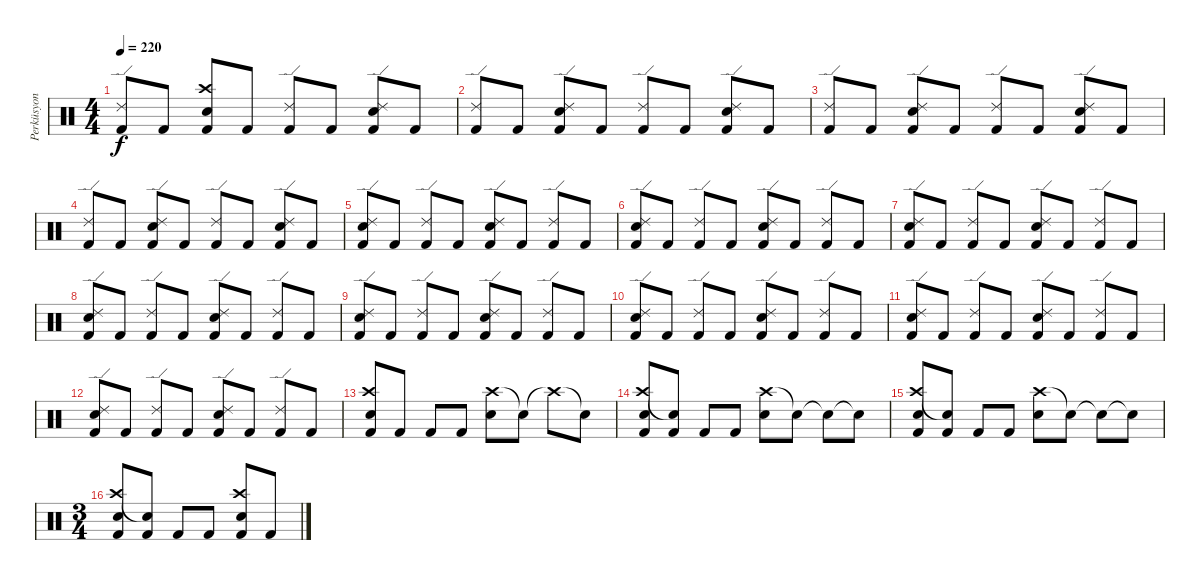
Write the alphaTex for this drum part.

\track ("Perküsyon" "Perküsyon") {instrument percussion}
\staff {score}
\articulation defaults
\ts (4 4)
\tempo 220
\clef neutral
\ks c
("Ride (edge) 2" "Kick (hit) 2").8{dy f} "Kick (hit) 2".8 ("Crash high (hit)" "Electric Snare (hit)" "Kick (hit) 2").8 "Kick (hit) 2".8 ("Ride (edge) 2" "Kick (hit) 2").8 "Kick (hit) 2".8 ("Ride (edge) 2" "Electric Snare (hit)" "Kick (hit) 2").8 "Kick (hit) 2".8 |
("Ride (edge) 2" "Kick (hit) 2").8 "Kick (hit) 2".8 ("Ride (edge) 2" "Electric Snare (hit)" "Kick (hit) 2").8 "Kick (hit) 2".8 ("Ride (edge) 2" "Kick (hit) 2").8 "Kick (hit) 2".8 ("Ride (edge) 2" "Electric Snare (hit)" "Kick (hit) 2").8 "Kick (hit) 2".8 |
("Ride (edge) 2" "Kick (hit) 2").8 "Kick (hit) 2".8 ("Ride (edge) 2" "Electric Snare (hit)" "Kick (hit) 2").8 "Kick (hit) 2".8 ("Ride (edge) 2" "Kick (hit) 2").8 "Kick (hit) 2".8 ("Ride (edge) 2" "Electric Snare (hit)" "Kick (hit) 2").8 "Kick (hit) 2".8 |
("Ride (edge) 2" "Kick (hit) 2").8 "Kick (hit) 2".8 ("Ride (edge) 2" "Electric Snare (hit)" "Kick (hit) 2").8 "Kick (hit) 2".8 ("Ride (edge) 2" "Kick (hit) 2").8 "Kick (hit) 2".8 ("Ride (edge) 2" "Electric Snare (hit)" "Kick (hit) 2").8 "Kick (hit) 2".8 |
("Ride (edge) 2" "Electric Snare (hit)" "Kick (hit) 2").8 "Kick (hit) 2".8 ("Ride (edge) 2" "Kick (hit) 2").8 "Kick (hit) 2".8 ("Ride (edge) 2" "Electric Snare (hit)" "Kick (hit) 2").8 "Kick (hit) 2".8 ("Ride (edge) 2" "Kick (hit) 2").8 "Kick (hit) 2".8 |
("Ride (edge) 2" "Electric Snare (hit)" "Kick (hit) 2").8 "Kick (hit) 2".8 ("Ride (edge) 2" "Kick (hit) 2").8 "Kick (hit) 2".8 ("Ride (edge) 2" "Electric Snare (hit)" "Kick (hit) 2").8 "Kick (hit) 2".8 ("Ride (edge) 2" "Kick (hit) 2").8 "Kick (hit) 2".8 |
("Ride (edge) 2" "Electric Snare (hit)" "Kick (hit) 2").8 "Kick (hit) 2".8 ("Ride (edge) 2" "Kick (hit) 2").8 "Kick (hit) 2".8 ("Ride (edge) 2" "Electric Snare (hit)" "Kick (hit) 2").8 "Kick (hit) 2".8 ("Ride (edge) 2" "Kick (hit) 2").8 "Kick (hit) 2".8 |
("Ride (edge) 2" "Electric Snare (hit)" "Kick (hit) 2").8 "Kick (hit) 2".8 ("Ride (edge) 2" "Kick (hit) 2").8 "Kick (hit) 2".8 ("Ride (edge) 2" "Electric Snare (hit)" "Kick (hit) 2").8 "Kick (hit) 2".8 ("Ride (edge) 2" "Kick (hit) 2").8 "Kick (hit) 2".8 |
("Ride (edge) 2" "Electric Snare (hit)" "Kick (hit) 2").8 "Kick (hit) 2".8 ("Ride (edge) 2" "Kick (hit) 2").8 "Kick (hit) 2".8 ("Ride (edge) 2" "Electric Snare (hit)" "Kick (hit) 2").8 "Kick (hit) 2".8 ("Ride (edge) 2" "Kick (hit) 2").8 "Kick (hit) 2".8 |
("Ride (edge) 2" "Electric Snare (hit)" "Kick (hit) 2").8 "Kick (hit) 2".8 ("Ride (edge) 2" "Kick (hit) 2").8 "Kick (hit) 2".8 ("Ride (edge) 2" "Electric Snare (hit)" "Kick (hit) 2").8 "Kick (hit) 2".8 ("Ride (edge) 2" "Kick (hit) 2").8 "Kick (hit) 2".8 |
("Ride (edge) 2" "Electric Snare (hit)" "Kick (hit) 2").8 "Kick (hit) 2".8 ("Ride (edge) 2" "Kick (hit) 2").8 "Kick (hit) 2".8 ("Ride (edge) 2" "Electric Snare (hit)" "Kick (hit) 2").8 "Kick (hit) 2".8 ("Ride (edge) 2" "Kick (hit) 2").8 "Kick (hit) 2".8 |
("Ride (edge) 2" "Electric Snare (hit)" "Kick (hit) 2").8 "Kick (hit) 2".8 ("Ride (edge) 2" "Kick (hit) 2").8 "Kick (hit) 2".8 ("Ride (edge) 2" "Electric Snare (hit)" "Kick (hit) 2").8 "Kick (hit) 2".8 ("Ride (edge) 2" "Kick (hit) 2").8 "Kick (hit) 2".8 |
("Crash high (hit)" "Electric Snare (hit)" "Kick (hit) 2").8 "Kick (hit) 2".8 "Kick (hit) 2".8 "Kick (hit) 2".8 ("Crash high (hit)" "Electric Snare (hit)").8 "Snare (hit)"{t}.8 "Crash high (hit)"{t}.8 "Snare (hit)"{t}.8 |
("Crash high (hit)" "Electric Snare (hit)" "Kick (hit) 2").8 ("Snare (hit)"{t} "Kick (hit) 2").8 "Kick (hit) 2".8 "Kick (hit) 2".8 ("Crash high (hit)" "Electric Snare (hit)").8 "Snare (hit)"{t}.8 "Snare (hit)"{t}.8 "Snare (hit)"{t}.8 |
("Crash high (hit)" "Electric Snare (hit)" "Kick (hit) 2").8 ("Snare (hit)"{t} "Kick (hit) 2").8 "Kick (hit) 2".8 "Kick (hit) 2".8 ("Crash high (hit)" "Electric Snare (hit)").8 "Snare (hit)"{t}.8 "Snare (hit)"{t}.8 "Snare (hit)"{t}.8 |
\ts (3 4)
("Crash high (hit)" "Electric Snare (hit)" "Kick (hit) 2").8 ("Snare (hit)"{t} "Kick (hit) 2").8 "Kick (hit) 2".8 "Kick (hit) 2".8 ("Crash high (hit)" "Electric Snare (hit)" "Kick (hit) 2").8 "Kick (hit) 2".8
